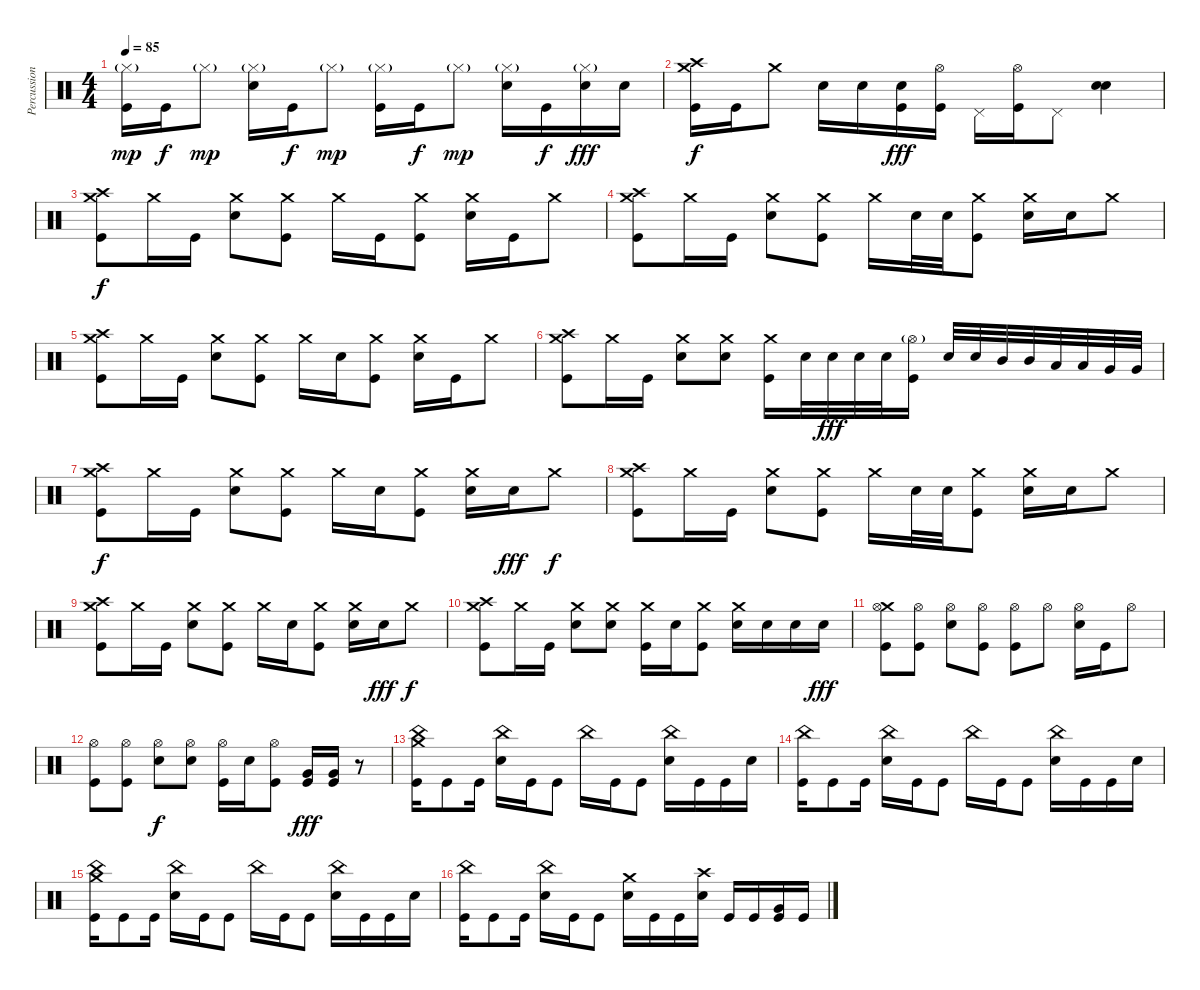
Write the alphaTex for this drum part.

\track ("Percussion" "Percussion") {instrument percussion}
\staff {score}
\articulation defaults
\ts (4 4)
\tempo 85
\clef neutral
\ks c
("Hi-Hat (closed)"{g} "Kick (hit)").16{dy mp} "Kick (hit)".16{dy f} "Hi-Hat (closed)"{g}.8{dy mp} ("Hi-Hat (closed)"{g} "Snare (hit) 2").16 "Kick (hit)".16{dy f} "Hi-Hat (closed)"{g}.8{dy mp} ("Hi-Hat (closed)"{g} "Kick (hit)").16 "Kick (hit)".16{dy f} "Hi-Hat (closed)"{g}.8{dy mp} ("Hi-Hat (closed)"{g} "Snare (hit) 2").16 "Kick (hit)".16{dy f} ("Hi-Hat (closed)"{g} "Snare (hit) 2").16{dy fff} "Snare (hit) 2".16 |
("Crash high (hit)" "Crash medium (hit)" "Kick (hit)").16{dy f} "Kick (hit)".16 "Crash medium (hit)".8 "Snare (hit) 2".16 "Snare (hit) 2".16 ("Snare (hit) 2" "Kick (hit)").16{dy fff} ("Hi-Hat (open)" "Kick (hit)").16 "Pedal Hi-Hat (hit)".16 ("Hi-Hat (open)" "Kick (hit)").16 "Pedal Hi-Hat (hit)".8 ("Snare (hit) 2" "Snare (hit) 2").4 |
("Crash high (hit)" "Crash medium (hit)" "Kick (hit)").8{dy f} "Crash medium (hit)".16 "Kick (hit)".16 ("Crash medium (hit)" "Snare (hit) 2").8 ("Crash medium (hit)" "Kick (hit)").8 "Crash medium (hit)".16 "Kick (hit)".16 ("Crash medium (hit)" "Kick (hit)").8 ("Crash medium (hit)" "Snare (hit) 2").16 "Kick (hit)".16 "Crash medium (hit)".8 |
("Crash high (hit)" "Crash medium (hit)" "Kick (hit)").8 "Crash medium (hit)".16 "Kick (hit)".16 ("Crash medium (hit)" "Snare (hit) 2").8 ("Crash medium (hit)" "Kick (hit)").8 "Crash medium (hit)".16 "Snare (hit) 2".32 "Snare (hit) 2".32 ("Crash medium (hit)" "Kick (hit)").8 ("Crash medium (hit)" "Snare (hit) 2").16 "Snare (hit) 2".16 "Crash medium (hit)".8 |
("Crash high (hit)" "Crash medium (hit)" "Kick (hit)").8 "Crash medium (hit)".16 "Kick (hit)".16 ("Crash medium (hit)" "Snare (hit) 2").8 ("Crash medium (hit)" "Kick (hit)").8 "Crash medium (hit)".16 "Snare (hit) 2".16 ("Crash medium (hit)" "Kick (hit)").8 ("Crash medium (hit)" "Snare (hit) 2").16 "Kick (hit)".16 "Crash medium (hit)".8 |
("Crash high (hit)" "Crash medium (hit)" "Kick (hit)").8 "Crash medium (hit)".16 "Kick (hit)".16 ("Crash medium (hit)" "Snare (hit) 2").8 ("Crash medium (hit)" "Snare (hit) 2").8 ("Crash medium (hit)" "Kick (hit)").16 "Snare (hit) 2".32 "Snare (hit) 2".32{dy fff} "Snare (hit) 2".32 "Snare (hit) 2".32 ("Hi-Hat (open)"{g} "Kick (hit)").16 "Snare (hit) 2".32 "Snare (hit) 2".32 "Mid Tom (hit)".32 "Mid Tom (hit)".32 "Low Tom (hit)".32 "Low Tom (hit)".32 "Very Low Tom (hit)".32 "Very Low Tom (hit)".32 |
("Crash high (hit)" "Crash medium (hit)" "Kick (hit)").8{dy f} "Crash medium (hit)".16 "Kick (hit)".16 ("Crash medium (hit)" "Snare (hit) 2").8 ("Crash medium (hit)" "Kick (hit)").8 "Crash medium (hit)".16 "Snare (hit) 2".16 ("Crash medium (hit)" "Kick (hit)").8 ("Crash medium (hit)" "Snare (hit) 2").16 "Snare (hit) 2".16{dy fff} "Crash medium (hit)".8{dy f} |
("Crash high (hit)" "Crash medium (hit)" "Kick (hit)").8 "Crash medium (hit)".16 "Kick (hit)".16 ("Crash medium (hit)" "Snare (hit) 2").8 ("Crash medium (hit)" "Kick (hit)").8 "Crash medium (hit)".16 "Snare (hit) 2".32 "Snare (hit) 2".32 ("Crash medium (hit)" "Kick (hit)").8 ("Crash medium (hit)" "Snare (hit) 2").16 "Snare (hit) 2".16 "Crash medium (hit)".8 |
("Crash high (hit)" "Crash medium (hit)" "Kick (hit)").8 "Crash medium (hit)".16 "Kick (hit)".16 ("Crash medium (hit)" "Snare (hit) 2").8 ("Crash medium (hit)" "Kick (hit)").8 "Crash medium (hit)".16 "Snare (hit) 2".16 ("Crash medium (hit)" "Kick (hit)").8 ("Crash medium (hit)" "Snare (hit) 2").16 "Snare (hit) 2".16{dy fff} "Crash medium (hit)".8{dy f} |
("Crash high (hit)" "Crash medium (hit)" "Kick (hit)").8 "Crash medium (hit)".16 "Kick (hit)".16 ("Crash medium (hit)" "Snare (hit) 2").8 ("Crash medium (hit)" "Snare (hit) 2").8 ("Crash medium (hit)" "Kick (hit)").16 "Snare (hit) 2".16 ("Crash medium (hit)" "Kick (hit)").8 ("Crash medium (hit)" "Snare (hit) 2").16 "Snare (hit) 2".16 "Snare (hit) 2".16 "Snare (hit) 2".16{dy fff} |
("Crash medium (hit)" "Hi-Hat (open)" "Kick (hit)").8 ("Hi-Hat (open)" "Kick (hit)").8 ("Hi-Hat (open)" "Snare (hit) 2").8 ("Hi-Hat (open)" "Kick (hit)").8 ("Hi-Hat (open)" "Kick (hit)").8 "Hi-Hat (open)".8 ("Hi-Hat (open)" "Snare (hit) 2").16 "Kick (hit)".16 "Hi-Hat (open)".8 |
("Hi-Hat (open)" "Kick (hit)").8 ("Hi-Hat (open)" "Kick (hit)").8 ("Hi-Hat (open)" "Snare (hit) 2").8{dy f} ("Hi-Hat (open)" "Snare (hit) 2").8 ("Hi-Hat (open)" "Kick (hit)").16 "Snare (hit) 2".16 ("Hi-Hat (open)" "Kick (hit)").8 ("Very Low Tom (hit)" "Kick (hit)").16{dy fff} ("Very Low Tom (hit)" "Kick (hit)").16 r.8 |
("Crash medium (hit)" "China (hit)" "Kick (hit)").16 "Kick (hit)".8 "Kick (hit)".16 ("China (hit)" "Snare (hit) 2").16 "Kick (hit)".16 "Kick (hit)".8 "China (hit)".16 "Kick (hit)".16 "Kick (hit)".8 ("China (hit)" "Snare (hit) 2").16 "Kick (hit)".16 "Kick (hit)".16 "Snare (hit) 2".16 |
("China (hit)" "Kick (hit)").16 "Kick (hit)".8 "Kick (hit)".16 ("China (hit)" "Snare (hit) 2").16 "Kick (hit)".16 "Kick (hit)".8 "China (hit)".16 "Kick (hit)".16 "Kick (hit)".8 ("China (hit)" "Snare (hit) 2").16 "Kick (hit)".16 "Kick (hit)".16 "Snare (hit) 2".16 |
("Crash medium (hit)" "China (hit)" "Kick (hit)").16 "Kick (hit)".8 "Kick (hit)".16 ("China (hit)" "Snare (hit) 2").16 "Kick (hit)".16 "Kick (hit)".8 "China (hit)".16 "Kick (hit)".16 "Kick (hit)".8 ("China (hit)" "Snare (hit) 2").16 "Kick (hit)".16 "Kick (hit)".16 "Snare (hit) 2".16 |
("China (hit)" "Kick (hit)").16 "Kick (hit)".8 "Kick (hit)".16 ("China (hit)" "Snare (hit) 2").16 "Kick (hit)".16 "Kick (hit)".8 ("Crash medium (hit)" "Snare (hit) 2").16 "Kick (hit)".16 "Kick (hit)".16 ("Crash high (hit)" "Snare (hit) 2").16 "Kick (hit)".16 "Kick (hit)".16 ("Very Low Tom (hit)" "Kick (hit)").16 "Kick (hit)".16
